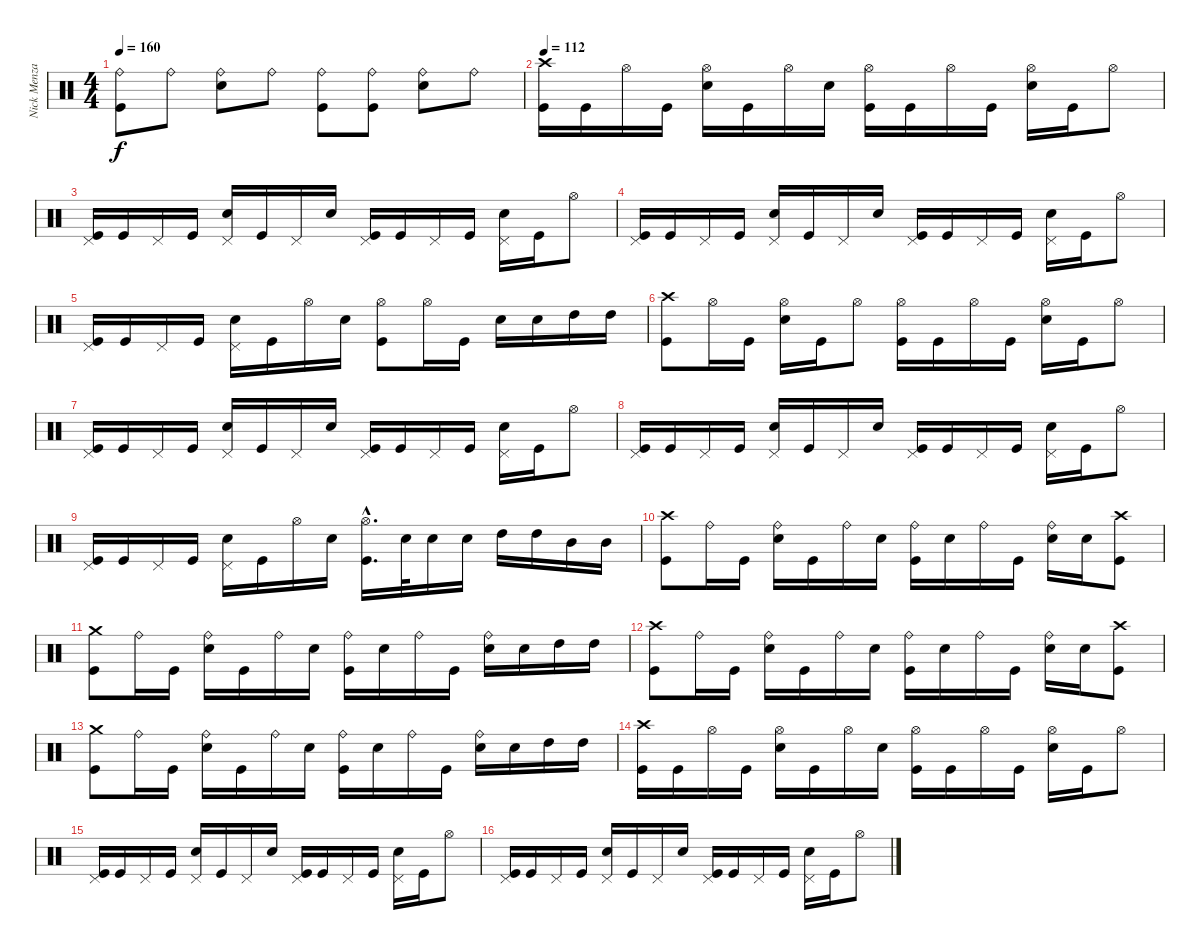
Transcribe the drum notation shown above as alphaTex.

\track ("Nick Menza" "Nick Menza") {instrument percussion}
\staff {score}
\articulation defaults
\ts (4 4)
\tempo 160
\clef neutral
\ks c
("Ride (bell)" "Kick (hit)").8{dy f} "Ride (bell)".8 ("Ride (bell)" "Snare (hit) 2").8 "Ride (bell)".8 ("Ride (bell)" "Kick (hit)").8 ("Ride (bell)" "Kick (hit)").8 ("Ride (bell)" "Snare (hit) 2").8 "Ride (bell)".8 |
\tempo 112
("Crash high (hit)" "Kick (hit)").16 "Kick (hit)".16 "Hi-Hat (open)".16 "Kick (hit)".16 ("Hi-Hat (open)" "Snare (hit) 2").16 "Kick (hit)".16 "Hi-Hat (open)".16 "Snare (hit) 2".16 ("Hi-Hat (open)" "Kick (hit)").16 "Kick (hit)".16 "Hi-Hat (open)".16 "Kick (hit)".16 ("Hi-Hat (open)" "Snare (hit) 2").16 "Kick (hit)".16 "Hi-Hat (open)".8 |
("Pedal Hi-Hat (hit)" "Kick (hit)").16 "Kick (hit)".16 "Pedal Hi-Hat (hit)".16 "Kick (hit)".16 ("Pedal Hi-Hat (hit)" "Snare (hit) 2").16 "Kick (hit)".16 "Pedal Hi-Hat (hit)".16 "Snare (hit) 2".16 ("Pedal Hi-Hat (hit)" "Kick (hit)").16 "Kick (hit)".16 "Pedal Hi-Hat (hit)".16 "Kick (hit)".16 ("Pedal Hi-Hat (hit)" "Snare (hit) 2").16 "Kick (hit)".16 "Hi-Hat (open)".8 |
("Pedal Hi-Hat (hit)" "Kick (hit)").16 "Kick (hit)".16 "Pedal Hi-Hat (hit)".16 "Kick (hit)".16 ("Pedal Hi-Hat (hit)" "Snare (hit) 2").16 "Kick (hit)".16 "Pedal Hi-Hat (hit)".16 "Snare (hit) 2".16 ("Pedal Hi-Hat (hit)" "Kick (hit)").16 "Kick (hit)".16 "Pedal Hi-Hat (hit)".16 "Kick (hit)".16 ("Pedal Hi-Hat (hit)" "Snare (hit) 2").16 "Kick (hit)".16 "Hi-Hat (open)".8 |
("Pedal Hi-Hat (hit)" "Kick (hit)").16 "Kick (hit)".16 "Pedal Hi-Hat (hit)".16 "Kick (hit)".16 ("Pedal Hi-Hat (hit)" "Snare (hit) 2").16 "Kick (hit)".16 "Hi-Hat (open)".16 "Snare (hit) 2".16 ("Hi-Hat (open)" "Kick (hit)").8 "Hi-Hat (open)".16 "Kick (hit)".16 "Snare (hit) 2".16 "Snare (hit) 2".16 "High Tom (hit)".16 "High Tom (hit)".16 |
("Crash high (hit)" "Kick (hit)").8 "Hi-Hat (open)".16 "Kick (hit)".16 ("Hi-Hat (open)" "Snare (hit) 2").16 "Kick (hit)".16 "Hi-Hat (open)".8 ("Hi-Hat (open)" "Kick (hit)").16 "Kick (hit)".16 "Hi-Hat (open)".16 "Kick (hit)".16 ("Hi-Hat (open)" "Snare (hit) 2").16 "Kick (hit)".16 "Hi-Hat (open)".8 |
("Pedal Hi-Hat (hit)" "Kick (hit)").16 "Kick (hit)".16 "Pedal Hi-Hat (hit)".16 "Kick (hit)".16 ("Pedal Hi-Hat (hit)" "Snare (hit) 2").16 "Kick (hit)".16 "Pedal Hi-Hat (hit)".16 "Snare (hit) 2".16 ("Pedal Hi-Hat (hit)" "Kick (hit)").16 "Kick (hit)".16 "Pedal Hi-Hat (hit)".16 "Kick (hit)".16 ("Pedal Hi-Hat (hit)" "Snare (hit) 2").16 "Kick (hit)".16 "Hi-Hat (open)".8 |
("Pedal Hi-Hat (hit)" "Kick (hit)").16 "Kick (hit)".16 "Pedal Hi-Hat (hit)".16 "Kick (hit)".16 ("Pedal Hi-Hat (hit)" "Snare (hit) 2").16 "Kick (hit)".16 "Pedal Hi-Hat (hit)".16 "Snare (hit) 2".16 ("Pedal Hi-Hat (hit)" "Kick (hit)").16 "Kick (hit)".16 "Pedal Hi-Hat (hit)".16 "Kick (hit)".16 ("Pedal Hi-Hat (hit)" "Snare (hit) 2").16 "Kick (hit)".16 "Hi-Hat (open)".8 |
("Pedal Hi-Hat (hit)" "Kick (hit)").16 "Kick (hit)".16 "Pedal Hi-Hat (hit)".16 "Kick (hit)".16 ("Pedal Hi-Hat (hit)" "Snare (hit) 2").16 "Kick (hit)".16 "Hi-Hat (open)".16 "Snare (hit) 2".16 ("Hi-Hat (open)"{hac} "Kick (hit)"{hac}).16{d} "Snare (hit) 2".32 "Snare (hit) 2".16 "Snare (hit) 2".16 "High Tom (hit)".16 "High Tom (hit)".16 "Mid Tom (hit)".16 "Mid Tom (hit)".16 |
("Crash high (hit)" "Kick (hit)").8 "Ride (bell)".16 "Kick (hit)".16 ("Ride (bell)" "Snare (hit) 2").16 "Kick (hit)".16 "Ride (bell)".16 "Snare (hit) 2".16 ("Ride (bell)" "Kick (hit)").16 "Snare (hit) 2".16 "Ride (bell)".16 "Kick (hit)".16 ("Ride (bell)" "Snare (hit) 2").16 "Snare (hit) 2".16 ("Crash high (hit)" "Kick (hit)").8 |
("Crash medium (hit)" "Kick (hit)").8 "Ride (bell)".16 "Kick (hit)".16 ("Ride (bell)" "Snare (hit) 2").16 "Kick (hit)".16 "Ride (bell)".16 "Snare (hit) 2".16 ("Ride (bell)" "Kick (hit)").16 "Snare (hit) 2".16 "Ride (bell)".16 "Kick (hit)".16 ("Ride (bell)" "Snare (hit) 2").16 "Snare (hit) 2".16 "High Tom (hit)".16 "High Tom (hit)".16 |
("Crash high (hit)" "Kick (hit)").8 "Ride (bell)".16 "Kick (hit)".16 ("Ride (bell)" "Snare (hit) 2").16 "Kick (hit)".16 "Ride (bell)".16 "Snare (hit) 2".16 ("Ride (bell)" "Kick (hit)").16 "Snare (hit) 2".16 "Ride (bell)".16 "Kick (hit)".16 ("Ride (bell)" "Snare (hit) 2").16 "Snare (hit) 2".16 ("Crash high (hit)" "Kick (hit)").8 |
("Crash medium (hit)" "Kick (hit)").8 "Ride (bell)".16 "Kick (hit)".16 ("Ride (bell)" "Snare (hit) 2").16 "Kick (hit)".16 "Ride (bell)".16 "Snare (hit) 2".16 ("Ride (bell)" "Kick (hit)").16 "Snare (hit) 2".16 "Ride (bell)".16 "Kick (hit)".16 ("Ride (bell)" "Snare (hit) 2").16 "Snare (hit) 2".16 "High Tom (hit)".16 "High Tom (hit)".16 |
("Crash high (hit)" "Kick (hit)").16 "Kick (hit)".16 "Hi-Hat (open)".16 "Kick (hit)".16 ("Hi-Hat (open)" "Snare (hit) 2").16 "Kick (hit)".16 "Hi-Hat (open)".16 "Snare (hit) 2".16 ("Hi-Hat (open)" "Kick (hit)").16 "Kick (hit)".16 "Hi-Hat (open)".16 "Kick (hit)".16 ("Hi-Hat (open)" "Snare (hit) 2").16 "Kick (hit)".16 "Hi-Hat (open)".8 |
("Pedal Hi-Hat (hit)" "Kick (hit)").16 "Kick (hit)".16 "Pedal Hi-Hat (hit)".16 "Kick (hit)".16 ("Pedal Hi-Hat (hit)" "Snare (hit) 2").16 "Kick (hit)".16 "Pedal Hi-Hat (hit)".16 "Snare (hit) 2".16 ("Pedal Hi-Hat (hit)" "Kick (hit)").16 "Kick (hit)".16 "Pedal Hi-Hat (hit)".16 "Kick (hit)".16 ("Pedal Hi-Hat (hit)" "Snare (hit) 2").16 "Kick (hit)".16 "Hi-Hat (open)".8 |
("Pedal Hi-Hat (hit)" "Kick (hit)").16 "Kick (hit)".16 "Pedal Hi-Hat (hit)".16 "Kick (hit)".16 ("Pedal Hi-Hat (hit)" "Snare (hit) 2").16 "Kick (hit)".16 "Pedal Hi-Hat (hit)".16 "Snare (hit) 2".16 ("Pedal Hi-Hat (hit)" "Kick (hit)").16 "Kick (hit)".16 "Pedal Hi-Hat (hit)".16 "Kick (hit)".16 ("Pedal Hi-Hat (hit)" "Snare (hit) 2").16 "Kick (hit)".16 "Hi-Hat (open)".8
